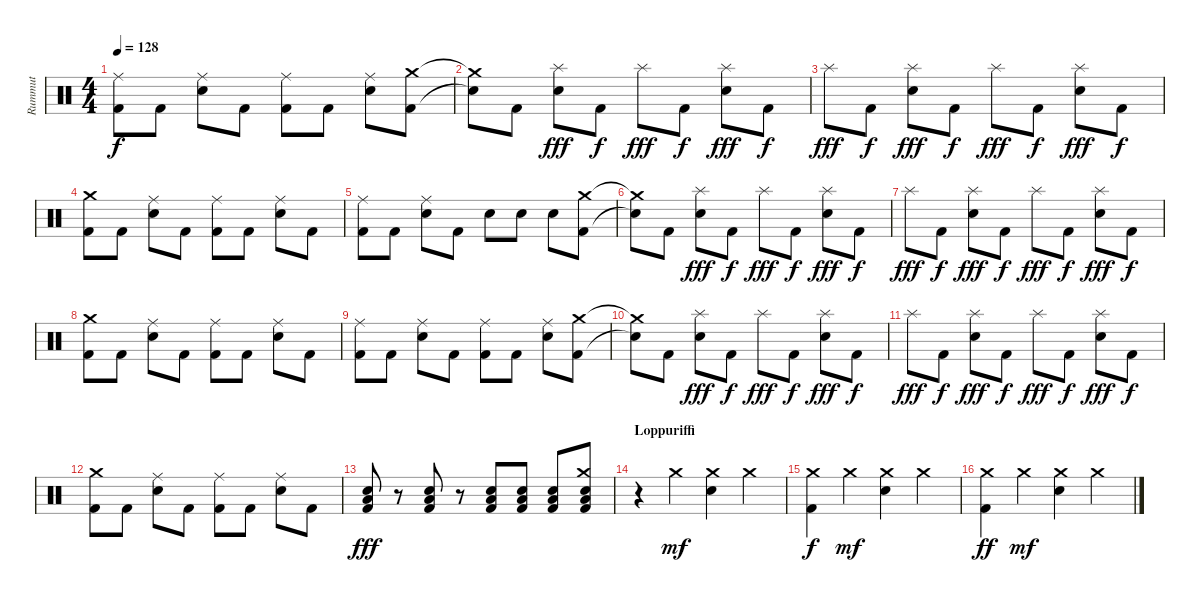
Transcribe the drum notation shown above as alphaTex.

\track ("Rummut" "Rummut") {instrument percussion}
\staff {score}
\articulation defaults
\ts (4 4)
\tempo 128
\clef neutral
\ks c
("Kick (hit) 2" "Ride (middle)").8{dy f} "Kick (hit) 2".8 ("Ride (middle)" "Snare (hit) 2").8 "Kick (hit) 2".8 ("Kick (hit) 2" "Ride (middle)").8 "Kick (hit) 2".8 ("Ride (middle)" "Snare (hit) 2").8 ("Kick (hit) 2" "Crash medium (hit)").8 |
("Snare (hit)"{t} "Crash medium (hit)"{t}).8 "Kick (hit) 2".8 ("Splash (hit)" "Snare (hit) 2").8{dy fff} "Kick (hit) 2".8{dy f} "Splash (hit)".8{dy fff} "Kick (hit) 2".8{dy f} ("Splash (hit)" "Snare (hit) 2").8{dy fff} "Kick (hit) 2".8{dy f} |
"Splash (hit)".8{dy fff} "Kick (hit) 2".8{dy f} ("Splash (hit)" "Snare (hit) 2").8{dy fff} "Kick (hit) 2".8{dy f} "Splash (hit)".8{dy fff} "Kick (hit) 2".8{dy f} ("Splash (hit)" "Snare (hit) 2").8{dy fff} "Kick (hit) 2".8{dy f} |
("Kick (hit) 2" "Crash medium (hit)").8 "Kick (hit) 2".8 ("Ride (middle)" "Snare (hit) 2").8 "Kick (hit) 2".8 ("Kick (hit) 2" "Ride (middle)").8 "Kick (hit) 2".8 ("Ride (middle)" "Snare (hit) 2").8 "Kick (hit) 2".8 |
("Kick (hit) 2" "Ride (middle)").8 "Kick (hit) 2".8 ("Ride (middle)" "Snare (hit) 2").8 "Kick (hit) 2".8 "Snare (hit) 2".8 "Snare (hit) 2".8 "Snare (hit) 2".8 ("Kick (hit) 2" "Crash medium (hit)").8 |
("Snare (hit)"{t} "Crash medium (hit)"{t}).8 "Kick (hit) 2".8 ("Splash (hit)" "Snare (hit) 2").8{dy fff} "Kick (hit) 2".8{dy f} "Splash (hit)".8{dy fff} "Kick (hit) 2".8{dy f} ("Splash (hit)" "Snare (hit) 2").8{dy fff} "Kick (hit) 2".8{dy f} |
"Splash (hit)".8{dy fff} "Kick (hit) 2".8{dy f} ("Splash (hit)" "Snare (hit) 2").8{dy fff} "Kick (hit) 2".8{dy f} "Splash (hit)".8{dy fff} "Kick (hit) 2".8{dy f} ("Splash (hit)" "Snare (hit) 2").8{dy fff} "Kick (hit) 2".8{dy f} |
("Kick (hit) 2" "Crash medium (hit)").8 "Kick (hit) 2".8 ("Ride (middle)" "Snare (hit) 2").8 "Kick (hit) 2".8 ("Kick (hit) 2" "Ride (middle)").8 "Kick (hit) 2".8 ("Ride (middle)" "Snare (hit) 2").8 "Kick (hit) 2".8 |
("Kick (hit) 2" "Ride (middle)").8 "Kick (hit) 2".8 ("Ride (middle)" "Snare (hit) 2").8 "Kick (hit) 2".8 ("Kick (hit) 2" "Ride (middle)").8 "Kick (hit) 2".8 ("Ride (middle)" "Snare (hit) 2").8 ("Kick (hit) 2" "Crash medium (hit)").8 |
("Snare (hit)"{t} "Crash medium (hit)"{t}).8 "Kick (hit) 2".8 ("Splash (hit)" "Snare (hit) 2").8{dy fff} "Kick (hit) 2".8{dy f} "Splash (hit)".8{dy fff} "Kick (hit) 2".8{dy f} ("Splash (hit)" "Snare (hit) 2").8{dy fff} "Kick (hit) 2".8{dy f} |
"Splash (hit)".8{dy fff} "Kick (hit) 2".8{dy f} ("Splash (hit)" "Snare (hit) 2").8{dy fff} "Kick (hit) 2".8{dy f} "Splash (hit)".8{dy fff} "Kick (hit) 2".8{dy f} ("Splash (hit)" "Snare (hit) 2").8{dy fff} "Kick (hit) 2".8{dy f} |
("Kick (hit) 2" "Crash medium (hit)").8 "Kick (hit) 2".8 ("Ride (middle)" "Snare (hit) 2").8 "Kick (hit) 2".8 ("Kick (hit) 2" "Ride (middle)").8 "Kick (hit) 2".8 ("Ride (middle)" "Snare (hit) 2").8 "Kick (hit) 2".8 |
("Kick (hit) 2" "Low Tom (hit)" "Snare (hit) 2").8{dy fff} r.8 ("Kick (hit) 2" "Low Floor Tom (hit)" "Snare (hit) 2").8 r.8 ("Kick (hit) 2" "Low Floor Tom (hit)" "Snare (hit) 2").8 ("Kick (hit) 2" "Low Floor Tom (hit)" "Snare (hit) 2").8 ("Kick (hit) 2" "Low Floor Tom (hit)" "Snare (hit) 2").8 ("Kick (hit) 2" "Crash medium (hit)" "Low Floor Tom (hit)" "Snare (hit) 2").8 |
\section ("" "Loppuriffi")
r.4 "Crash medium (hit)".4{dy mf} ("Crash medium (hit)" "Snare (hit) 2").4 "Crash medium (hit)".4 |
("Kick (hit) 2" "Crash medium (hit)").4{dy f} "Crash medium (hit)".4{dy mf} ("Crash medium (hit)" "Snare (hit) 2").4 "Crash medium (hit)".4 |
("Kick (hit) 2" "Crash medium (hit)").4{dy ff} "Crash medium (hit)".4{dy mf} ("Crash medium (hit)" "Snare (hit) 2").4 "Crash medium (hit)".4
